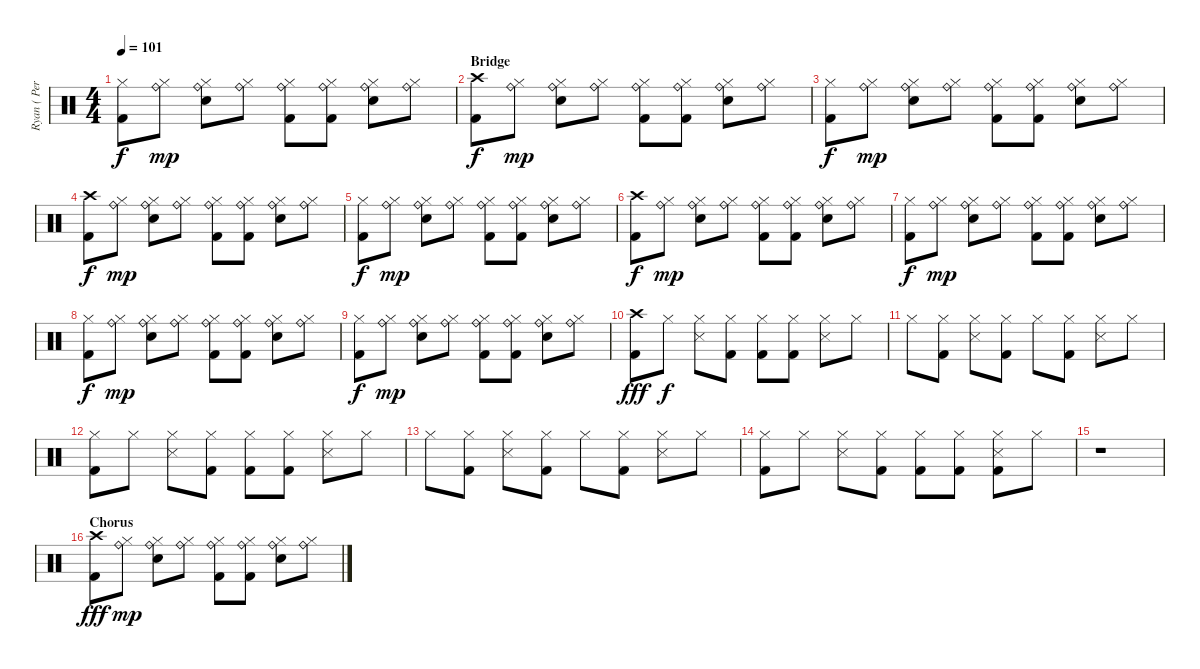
\track ("Ryan ( Percussion )" "Ryan ( Per") {instrument percussion}
\staff {score}
\articulation defaults
\ts (4 4)
\tempo 101
\clef neutral
\ks c
("Hi-Hat (closed)" "Kick (hit) 2").8{dy f} ("Hi-Hat (closed)" "Ride (bell)").8{dy mp} ("Hi-Hat (closed)" "Snare (hit) 2" "Ride (bell)").8 ("Hi-Hat (closed)" "Ride (bell)").8 ("Hi-Hat (closed)" "Kick (hit) 2" "Ride (bell)").8 ("Hi-Hat (closed)" "Kick (hit) 2" "Ride (bell)").8 ("Hi-Hat (closed)" "Snare (hit) 2" "Ride (bell)").8 ("Hi-Hat (closed)" "Ride (bell)").8 |
\section ("" "Bridge")
("Crash high (hit)" "Kick (hit) 2").8{dy f} ("Hi-Hat (closed)" "Ride (bell)").8{dy mp} ("Hi-Hat (closed)" "Snare (hit) 2" "Ride (bell)").8 ("Hi-Hat (closed)" "Ride (bell)").8 ("Hi-Hat (closed)" "Kick (hit) 2" "Ride (bell)").8 ("Hi-Hat (closed)" "Kick (hit) 2" "Ride (bell)").8 ("Hi-Hat (closed)" "Snare (hit) 2" "Ride (bell)").8 ("Hi-Hat (closed)" "Ride (bell)").8 |
("Hi-Hat (closed)" "Kick (hit) 2").8{dy f} ("Hi-Hat (closed)" "Ride (bell)").8{dy mp} ("Hi-Hat (closed)" "Snare (hit) 2" "Ride (bell)").8 ("Hi-Hat (closed)" "Ride (bell)").8 ("Hi-Hat (closed)" "Kick (hit) 2" "Ride (bell)").8 ("Hi-Hat (closed)" "Kick (hit) 2" "Ride (bell)").8 ("Hi-Hat (closed)" "Snare (hit) 2" "Ride (bell)").8 ("Hi-Hat (closed)" "Ride (bell)").8 |
("Crash high (hit)" "Kick (hit) 2").8{dy f} ("Hi-Hat (closed)" "Ride (bell)").8{dy mp} ("Hi-Hat (closed)" "Snare (hit) 2" "Ride (bell)").8 ("Hi-Hat (closed)" "Ride (bell)").8 ("Hi-Hat (closed)" "Kick (hit) 2" "Ride (bell)").8 ("Hi-Hat (closed)" "Kick (hit) 2" "Ride (bell)").8 ("Hi-Hat (closed)" "Snare (hit) 2" "Ride (bell)").8 ("Hi-Hat (closed)" "Ride (bell)").8 |
("Hi-Hat (closed)" "Kick (hit) 2").8{dy f} ("Hi-Hat (closed)" "Ride (bell)").8{dy mp} ("Hi-Hat (closed)" "Snare (hit) 2" "Ride (bell)").8 ("Hi-Hat (closed)" "Ride (bell)").8 ("Hi-Hat (closed)" "Kick (hit) 2" "Ride (bell)").8 ("Hi-Hat (closed)" "Kick (hit) 2" "Ride (bell)").8 ("Hi-Hat (closed)" "Snare (hit) 2" "Ride (bell)").8 ("Hi-Hat (closed)" "Ride (bell)").8 |
("Crash high (hit)" "Kick (hit) 2").8{dy f} ("Hi-Hat (closed)" "Ride (bell)").8{dy mp} ("Hi-Hat (closed)" "Snare (hit) 2" "Ride (bell)").8 ("Hi-Hat (closed)" "Ride (bell)").8 ("Hi-Hat (closed)" "Kick (hit) 2" "Ride (bell)").8 ("Hi-Hat (closed)" "Kick (hit) 2" "Ride (bell)").8 ("Hi-Hat (closed)" "Snare (hit) 2" "Ride (bell)").8 ("Hi-Hat (closed)" "Ride (bell)").8 |
("Hi-Hat (closed)" "Kick (hit) 2").8{dy f} ("Hi-Hat (closed)" "Ride (bell)").8{dy mp} ("Hi-Hat (closed)" "Snare (hit) 2" "Ride (bell)").8 ("Hi-Hat (closed)" "Ride (bell)").8 ("Hi-Hat (closed)" "Kick (hit) 2" "Ride (bell)").8 ("Hi-Hat (closed)" "Kick (hit) 2" "Ride (bell)").8 ("Hi-Hat (closed)" "Snare (hit) 2" "Ride (bell)").8 ("Hi-Hat (closed)" "Ride (bell)").8 |
("Hi-Hat (closed)" "Kick (hit) 2").8{dy f} ("Hi-Hat (closed)" "Ride (bell)").8{dy mp} ("Hi-Hat (closed)" "Snare (hit) 2" "Ride (bell)").8 ("Hi-Hat (closed)" "Ride (bell)").8 ("Hi-Hat (closed)" "Kick (hit) 2" "Ride (bell)").8 ("Hi-Hat (closed)" "Kick (hit) 2" "Ride (bell)").8 ("Hi-Hat (closed)" "Snare (hit) 2" "Ride (bell)").8 ("Hi-Hat (closed)" "Ride (bell)").8 |
("Hi-Hat (closed)" "Kick (hit) 2").8{dy f} ("Hi-Hat (closed)" "Ride (bell)").8{dy mp} ("Hi-Hat (closed)" "Snare (hit) 2" "Ride (bell)").8 ("Hi-Hat (closed)" "Ride (bell)").8 ("Hi-Hat (closed)" "Kick (hit) 2" "Ride (bell)").8 ("Hi-Hat (closed)" "Kick (hit) 2" "Ride (bell)").8 ("Hi-Hat (closed)" "Snare (hit) 2" "Ride (bell)").8 ("Hi-Hat (closed)" "Ride (bell)").8 |
("Crash high (hit)" "Kick (hit) 2").8{dy fff} "Hi-Hat (closed)".8{dy f} ("Hi-Hat (closed)" "Snare (side stick) 3").8 ("Hi-Hat (closed)" "Kick (hit) 2").8 ("Hi-Hat (closed)" "Kick (hit) 2").8 ("Hi-Hat (closed)" "Kick (hit) 2").8 ("Hi-Hat (closed)" "Snare (side stick) 3").8 "Hi-Hat (closed)".8 |
"Hi-Hat (closed)".8 ("Hi-Hat (closed)" "Kick (hit) 2").8 ("Hi-Hat (closed)" "Snare (side stick) 3").8 ("Hi-Hat (closed)" "Kick (hit) 2").8 "Hi-Hat (closed)".8 ("Hi-Hat (closed)" "Kick (hit) 2").8 ("Hi-Hat (closed)" "Snare (side stick) 3").8 "Hi-Hat (closed)".8 |
("Hi-Hat (closed)" "Kick (hit) 2").8 "Hi-Hat (closed)".8 ("Hi-Hat (closed)" "Snare (side stick) 3").8 ("Hi-Hat (closed)" "Kick (hit) 2").8 ("Hi-Hat (closed)" "Kick (hit) 2").8 ("Hi-Hat (closed)" "Kick (hit) 2").8 ("Hi-Hat (closed)" "Snare (side stick) 3").8 "Hi-Hat (closed)".8 |
"Hi-Hat (closed)".8 ("Hi-Hat (closed)" "Kick (hit) 2").8 ("Hi-Hat (closed)" "Snare (side stick) 3").8 ("Hi-Hat (closed)" "Kick (hit) 2").8 "Hi-Hat (closed)".8 ("Hi-Hat (closed)" "Kick (hit) 2").8 ("Hi-Hat (closed)" "Snare (side stick) 3").8 "Hi-Hat (closed)".8 |
("Hi-Hat (closed)" "Kick (hit) 2").8 "Hi-Hat (closed)".8 ("Hi-Hat (closed)" "Snare (side stick) 3").8 ("Hi-Hat (closed)" "Kick (hit) 2").8 ("Hi-Hat (closed)" "Kick (hit) 2").8 ("Hi-Hat (closed)" "Kick (hit) 2").8 ("Hi-Hat (closed)" "Kick (hit) 2" "Snare (side stick) 3").8 "Hi-Hat (closed)".8 |
r.1 |
\section ("" "Chorus")
("Crash high (hit)" "Kick (hit) 2").8{dy fff} ("Hi-Hat (closed)" "Ride (bell)").8{dy mp} ("Hi-Hat (closed)" "Snare (hit) 2" "Ride (bell)").8 ("Hi-Hat (closed)" "Ride (bell)").8 ("Hi-Hat (closed)" "Kick (hit) 2" "Ride (bell)").8 ("Hi-Hat (closed)" "Kick (hit) 2" "Ride (bell)").8 ("Hi-Hat (closed)" "Snare (hit) 2" "Ride (bell)").8 ("Hi-Hat (closed)" "Ride (bell)").8
